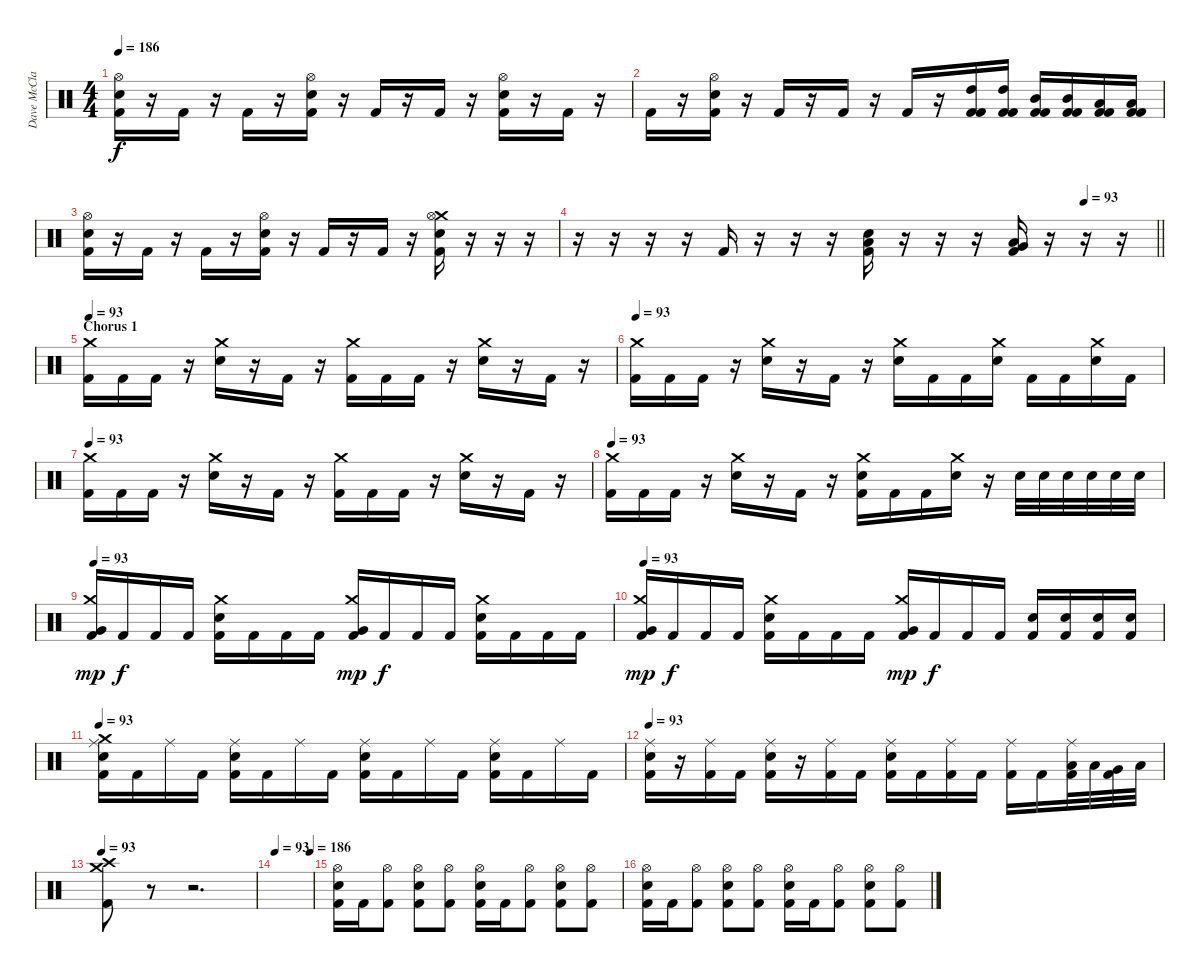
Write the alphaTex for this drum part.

\track ("Dave McClain" "Dave McCla") {instrument percussion}
\staff {score}
\articulation defaults
\ts (4 4)
\tempo 186
\clef neutral
\ks c
("Hi-Hat (open)" "Snare (hit) 2" "Kick (hit) 2").16{dy f} r.16 "Kick (hit) 2".16 r.16 "Kick (hit) 2".16 r.16 ("Hi-Hat (open)" "Snare (hit) 2" "Kick (hit) 2").16 r.16 "Kick (hit) 2".16 r.16 "Kick (hit) 2".16 r.16 ("Hi-Hat (open)" "Snare (hit) 2" "Kick (hit) 2").16 r.16 "Kick (hit) 2".16 r.16 |
"Kick (hit) 2".16 r.16 ("Hi-Hat (open)" "Snare (hit) 2" "Kick (hit) 2").16 r.16 "Kick (hit) 2".16 r.16 "Kick (hit) 2".16 r.16 "Kick (hit) 2".16 r.16 ("High Tom (hit)" "Kick (hit) 2" "Kick (hit) 2").16 ("High Tom (hit)" "Kick (hit) 2" "Kick (hit) 2").16 ("Mid Tom (hit)" "Kick (hit) 2" "Kick (hit) 2").16 ("Mid Tom (hit)" "Kick (hit) 2" "Kick (hit) 2").16 ("Low Tom (hit)" "Kick (hit) 2" "Kick (hit) 2").16 ("Low Tom (hit)" "Kick (hit) 2" "Kick (hit) 2").16 |
("Hi-Hat (open)" "Snare (hit) 2" "Kick (hit) 2").16 r.16 "Kick (hit) 2".16 r.16 "Kick (hit) 2".16 r.16 ("Hi-Hat (open)" "Snare (hit) 2" "Kick (hit) 2").16 r.16 "Kick (hit) 2".16 r.16 "Kick (hit) 2".16 r.16 ("Crash medium (hit)" "Hi-Hat (open)" "Snare (hit) 2" "Kick (hit) 2").16 r.16 r.16 r.16 |
\tempo (93 0.875)
\barLineRight lightlight
r.16 r.16 r.16 r.16 "Kick (hit) 2".16 r.16 r.16 r.16 ("Low Tom (hit)" "Snare (hit) 2" "Kick (hit) 2").16 r.16 r.16 r.16 ("Very Low Tom (hit)" "Low Tom (hit)" "Kick (hit) 2").16 r.16 r.16 r.16 |
\section ("" "Chorus 1")
\tempo 93
("Crash medium (hit)" "Kick (hit) 2").16 "Kick (hit) 2".16 "Kick (hit) 2".16 r.16 ("Crash medium (hit)" "Snare (hit) 2").16 r.16 "Kick (hit) 2".16 r.16 ("Crash medium (hit)" "Kick (hit) 2").16 "Kick (hit) 2".16 "Kick (hit) 2".16 r.16 ("Crash medium (hit)" "Snare (hit) 2").16 r.16 "Kick (hit) 2".16 r.16 |
\tempo 93
("Crash medium (hit)" "Kick (hit) 2").16 "Kick (hit) 2".16 "Kick (hit) 2".16 r.16 ("Crash medium (hit)" "Snare (hit) 2").16 r.16 "Kick (hit) 2".16 r.16 ("Crash medium (hit)" "Snare (hit) 2").16 "Kick (hit) 2".16 "Kick (hit) 2".16 ("Crash medium (hit)" "Snare (hit) 2").16 "Kick (hit) 2".16 "Kick (hit) 2".16 ("Crash medium (hit)" "Snare (hit) 2").16 "Kick (hit) 2".16 |
\tempo 93
("Crash medium (hit)" "Kick (hit) 2").16 "Kick (hit) 2".16 "Kick (hit) 2".16 r.16 ("Crash medium (hit)" "Snare (hit) 2").16 r.16 "Kick (hit) 2".16 r.16 ("Crash medium (hit)" "Kick (hit) 2").16 "Kick (hit) 2".16 "Kick (hit) 2".16 r.16 ("Crash medium (hit)" "Snare (hit) 2").16 r.16 "Kick (hit) 2".16 r.16 |
\tempo 93
("Crash medium (hit)" "Kick (hit) 2").16 "Kick (hit) 2".16 "Kick (hit) 2".16 r.16 ("Crash medium (hit)" "Snare (hit) 2").16 r.16 "Kick (hit) 2".16 r.16 ("Crash medium (hit)" "Snare (hit) 2" "Kick (hit) 2").16 "Kick (hit) 2".16 "Kick (hit) 2".16 ("Crash medium (hit)" "Snare (hit) 2").16 r.16 "Snare (hit) 2".32 "Snare (hit) 2".32 "Snare (hit) 2".32 "Snare (hit) 2".32 "Snare (hit) 2".32 "Snare (hit) 2".32 |
\tempo 93
("Crash medium (hit)" "Very Low Tom (hit)" "Kick (hit) 2").16{dy mp} "Kick (hit) 2".16{dy f} "Kick (hit) 2".16 "Kick (hit) 2".16 ("Crash medium (hit)" "Snare (hit) 2" "Kick (hit) 2").16 "Kick (hit) 2".16 "Kick (hit) 2".16 "Kick (hit) 2".16 ("Crash medium (hit)" "Very Low Tom (hit)" "Kick (hit) 2").16{dy mp} "Kick (hit) 2".16{dy f} "Kick (hit) 2".16 "Kick (hit) 2".16 ("Crash medium (hit)" "Snare (hit) 2" "Kick (hit) 2").16 "Kick (hit) 2".16 "Kick (hit) 2".16 "Kick (hit) 2".16 |
\tempo 93
("Crash medium (hit)" "Very Low Tom (hit)" "Kick (hit) 2").16{dy mp} "Kick (hit) 2".16{dy f} "Kick (hit) 2".16 "Kick (hit) 2".16 ("Crash medium (hit)" "Snare (hit) 2" "Kick (hit) 2").16 "Kick (hit) 2".16 "Kick (hit) 2".16 "Kick (hit) 2".16 ("Crash medium (hit)" "Very Low Tom (hit)" "Kick (hit) 2").16{dy mp} "Kick (hit) 2".16{dy f} "Kick (hit) 2".16 "Kick (hit) 2".16 ("Snare (hit) 2" "Kick (hit) 2").16 ("Snare (hit) 2" "Kick (hit) 2").16 ("Snare (hit) 2" "Kick (hit) 2").16 ("Snare (hit) 2" "Kick (hit) 2").16 |
\tempo 93
("Crash medium (hit)" "Ride (middle)" "Snare (hit) 2" "Kick (hit) 2").16 "Kick (hit) 2".16 "Ride (middle)".16 "Kick (hit) 2".16 ("Ride (middle)" "Snare (hit) 2" "Kick (hit) 2").16 "Kick (hit) 2".16 "Ride (middle)".16 "Kick (hit) 2".16 ("Ride (middle)" "Snare (hit) 2" "Kick (hit) 2").16 "Kick (hit) 2".16 "Ride (middle)".16 "Kick (hit) 2".16 ("Ride (middle)" "Snare (hit) 2" "Kick (hit) 2").16 "Kick (hit) 2".16 "Ride (middle)".16 "Kick (hit) 2".16 |
\tempo 93
("Ride (middle)" "Snare (hit) 2" "Kick (hit) 2").16 r.16 ("Ride (middle)" "Kick (hit) 2").16 "Kick (hit) 2".16 ("Ride (middle)" "Snare (hit) 2" "Kick (hit) 2").16 r.16 ("Ride (middle)" "Kick (hit) 2").16 "Kick (hit) 2".16 ("Ride (middle)" "Snare (hit) 2" "Kick (hit) 2").16 "Kick (hit) 2".16 ("Ride (middle)" "Kick (hit) 2").16 "Kick (hit) 2".16 ("Ride (middle)" "Kick (hit) 2").16 "Kick (hit) 2".16 ("Ride (middle)" "Low Tom (hit)" "Kick (hit) 2").32 "Low Tom (hit)".32 ("Very Low Tom (hit)" "Kick (hit) 2").32 "Low Floor Tom (hit)".32 |
\tempo 93
("Crash high (hit)" "Crash medium (hit)" "Kick (hit) 2").8 r.8 r.2{d} |
\tempo (186 0.9375)
\tempo 93
|
("Hi-Hat (open)" "Snare (hit) 2" "Kick (hit) 2").16 "Kick (hit) 2".16 ("Hi-Hat (open)" "Kick (hit) 2").8 ("Hi-Hat (open)" "Snare (hit) 2" "Kick (hit) 2").8 ("Hi-Hat (open)" "Kick (hit) 2").8 ("Hi-Hat (open)" "Snare (hit) 2" "Kick (hit) 2").16 "Kick (hit) 2".16 ("Hi-Hat (open)" "Kick (hit) 2").8 ("Hi-Hat (open)" "Snare (hit) 2" "Kick (hit) 2").8 ("Hi-Hat (open)" "Kick (hit) 2").8 |
("Hi-Hat (open)" "Snare (hit) 2" "Kick (hit) 2").16 "Kick (hit) 2".16 ("Hi-Hat (open)" "Kick (hit) 2").8 ("Hi-Hat (open)" "Snare (hit) 2" "Kick (hit) 2").8 ("Hi-Hat (open)" "Kick (hit) 2").8 ("Hi-Hat (open)" "Snare (hit) 2" "Kick (hit) 2").16 "Kick (hit) 2".16 ("Hi-Hat (open)" "Kick (hit) 2").8 ("Hi-Hat (open)" "Snare (hit) 2" "Kick (hit) 2").8 ("Hi-Hat (open)" "Kick (hit) 2").8
